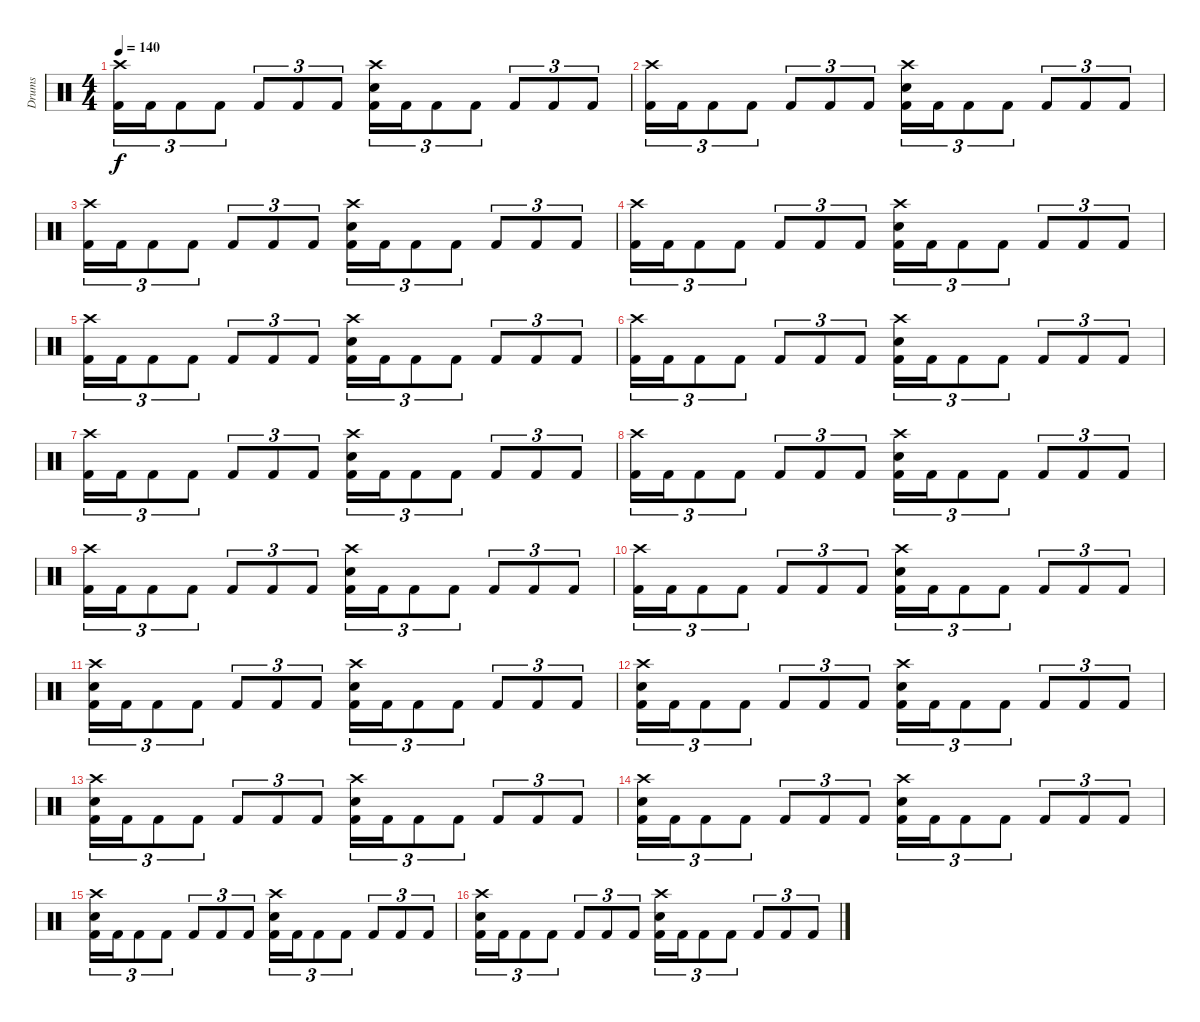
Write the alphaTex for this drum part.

\track ("Drums" "Drums") {instrument percussion}
\staff {score}
\articulation defaults
\ts (4 4)
\tempo 140
\clef neutral
\ks c
("Crash high (hit)" "Kick (hit) 2").16{tu (3 2) dy f} "Kick (hit) 2".16{tu (3 2)} "Kick (hit) 2".8{tu (3 2)} "Kick (hit) 2".8{tu (3 2)} "Kick (hit) 2".8{tu (3 2)} "Kick (hit) 2".8{tu (3 2)} "Kick (hit) 2".8{tu (3 2)} ("Crash high (hit)" "Snare (hit) 2" "Kick (hit) 2").16{tu (3 2)} "Kick (hit) 2".16{tu (3 2)} "Kick (hit) 2".8{tu (3 2)} "Kick (hit) 2".8{tu (3 2)} "Kick (hit) 2".8{tu (3 2)} "Kick (hit) 2".8{tu (3 2)} "Kick (hit) 2".8{tu (3 2)} |
("Crash high (hit)" "Kick (hit) 2").16{tu (3 2)} "Kick (hit) 2".16{tu (3 2)} "Kick (hit) 2".8{tu (3 2)} "Kick (hit) 2".8{tu (3 2)} "Kick (hit) 2".8{tu (3 2)} "Kick (hit) 2".8{tu (3 2)} "Kick (hit) 2".8{tu (3 2)} ("Crash high (hit)" "Snare (hit) 2" "Kick (hit) 2").16{tu (3 2)} "Kick (hit) 2".16{tu (3 2)} "Kick (hit) 2".8{tu (3 2)} "Kick (hit) 2".8{tu (3 2)} "Kick (hit) 2".8{tu (3 2)} "Kick (hit) 2".8{tu (3 2)} "Kick (hit) 2".8{tu (3 2)} |
("Crash high (hit)" "Kick (hit) 2").16{tu (3 2)} "Kick (hit) 2".16{tu (3 2)} "Kick (hit) 2".8{tu (3 2)} "Kick (hit) 2".8{tu (3 2)} "Kick (hit) 2".8{tu (3 2)} "Kick (hit) 2".8{tu (3 2)} "Kick (hit) 2".8{tu (3 2)} ("Crash high (hit)" "Snare (hit) 2" "Kick (hit) 2").16{tu (3 2)} "Kick (hit) 2".16{tu (3 2)} "Kick (hit) 2".8{tu (3 2)} "Kick (hit) 2".8{tu (3 2)} "Kick (hit) 2".8{tu (3 2)} "Kick (hit) 2".8{tu (3 2)} "Kick (hit) 2".8{tu (3 2)} |
("Crash high (hit)" "Kick (hit) 2").16{tu (3 2)} "Kick (hit) 2".16{tu (3 2)} "Kick (hit) 2".8{tu (3 2)} "Kick (hit) 2".8{tu (3 2)} "Kick (hit) 2".8{tu (3 2)} "Kick (hit) 2".8{tu (3 2)} "Kick (hit) 2".8{tu (3 2)} ("Crash high (hit)" "Snare (hit) 2" "Kick (hit) 2").16{tu (3 2)} "Kick (hit) 2".16{tu (3 2)} "Kick (hit) 2".8{tu (3 2)} "Kick (hit) 2".8{tu (3 2)} "Kick (hit) 2".8{tu (3 2)} "Kick (hit) 2".8{tu (3 2)} "Kick (hit) 2".8{tu (3 2)} |
("Crash high (hit)" "Kick (hit) 2").16{tu (3 2)} "Kick (hit) 2".16{tu (3 2)} "Kick (hit) 2".8{tu (3 2)} "Kick (hit) 2".8{tu (3 2)} "Kick (hit) 2".8{tu (3 2)} "Kick (hit) 2".8{tu (3 2)} "Kick (hit) 2".8{tu (3 2)} ("Crash high (hit)" "Snare (hit) 2" "Kick (hit) 2").16{tu (3 2)} "Kick (hit) 2".16{tu (3 2)} "Kick (hit) 2".8{tu (3 2)} "Kick (hit) 2".8{tu (3 2)} "Kick (hit) 2".8{tu (3 2)} "Kick (hit) 2".8{tu (3 2)} "Kick (hit) 2".8{tu (3 2)} |
("Crash high (hit)" "Kick (hit) 2").16{tu (3 2)} "Kick (hit) 2".16{tu (3 2)} "Kick (hit) 2".8{tu (3 2)} "Kick (hit) 2".8{tu (3 2)} "Kick (hit) 2".8{tu (3 2)} "Kick (hit) 2".8{tu (3 2)} "Kick (hit) 2".8{tu (3 2)} ("Crash high (hit)" "Snare (hit) 2" "Kick (hit) 2").16{tu (3 2)} "Kick (hit) 2".16{tu (3 2)} "Kick (hit) 2".8{tu (3 2)} "Kick (hit) 2".8{tu (3 2)} "Kick (hit) 2".8{tu (3 2)} "Kick (hit) 2".8{tu (3 2)} "Kick (hit) 2".8{tu (3 2)} |
("Crash high (hit)" "Kick (hit) 2").16{tu (3 2)} "Kick (hit) 2".16{tu (3 2)} "Kick (hit) 2".8{tu (3 2)} "Kick (hit) 2".8{tu (3 2)} "Kick (hit) 2".8{tu (3 2)} "Kick (hit) 2".8{tu (3 2)} "Kick (hit) 2".8{tu (3 2)} ("Crash high (hit)" "Snare (hit) 2" "Kick (hit) 2").16{tu (3 2)} "Kick (hit) 2".16{tu (3 2)} "Kick (hit) 2".8{tu (3 2)} "Kick (hit) 2".8{tu (3 2)} "Kick (hit) 2".8{tu (3 2)} "Kick (hit) 2".8{tu (3 2)} "Kick (hit) 2".8{tu (3 2)} |
("Crash high (hit)" "Kick (hit) 2").16{tu (3 2)} "Kick (hit) 2".16{tu (3 2)} "Kick (hit) 2".8{tu (3 2)} "Kick (hit) 2".8{tu (3 2)} "Kick (hit) 2".8{tu (3 2)} "Kick (hit) 2".8{tu (3 2)} "Kick (hit) 2".8{tu (3 2)} ("Crash high (hit)" "Snare (hit) 2" "Kick (hit) 2").16{tu (3 2)} "Kick (hit) 2".16{tu (3 2)} "Kick (hit) 2".8{tu (3 2)} "Kick (hit) 2".8{tu (3 2)} "Kick (hit) 2".8{tu (3 2)} "Kick (hit) 2".8{tu (3 2)} "Kick (hit) 2".8{tu (3 2)} |
("Crash high (hit)" "Kick (hit) 2").16{tu (3 2)} "Kick (hit) 2".16{tu (3 2)} "Kick (hit) 2".8{tu (3 2)} "Kick (hit) 2".8{tu (3 2)} "Kick (hit) 2".8{tu (3 2)} "Kick (hit) 2".8{tu (3 2)} "Kick (hit) 2".8{tu (3 2)} ("Crash high (hit)" "Snare (hit) 2" "Kick (hit) 2").16{tu (3 2)} "Kick (hit) 2".16{tu (3 2)} "Kick (hit) 2".8{tu (3 2)} "Kick (hit) 2".8{tu (3 2)} "Kick (hit) 2".8{tu (3 2)} "Kick (hit) 2".8{tu (3 2)} "Kick (hit) 2".8{tu (3 2)} |
("Crash high (hit)" "Kick (hit) 2").16{tu (3 2)} "Kick (hit) 2".16{tu (3 2)} "Kick (hit) 2".8{tu (3 2)} "Kick (hit) 2".8{tu (3 2)} "Kick (hit) 2".8{tu (3 2)} "Kick (hit) 2".8{tu (3 2)} "Kick (hit) 2".8{tu (3 2)} ("Crash high (hit)" "Snare (hit) 2" "Kick (hit) 2").16{tu (3 2)} "Kick (hit) 2".16{tu (3 2)} "Kick (hit) 2".8{tu (3 2)} "Kick (hit) 2".8{tu (3 2)} "Kick (hit) 2".8{tu (3 2)} "Kick (hit) 2".8{tu (3 2)} "Kick (hit) 2".8{tu (3 2)} |
("Crash high (hit)" "Snare (hit) 2" "Kick (hit) 2").16{tu (3 2)} "Kick (hit) 2".16{tu (3 2)} "Kick (hit) 2".8{tu (3 2)} "Kick (hit) 2".8{tu (3 2)} "Kick (hit) 2".8{tu (3 2)} "Kick (hit) 2".8{tu (3 2)} "Kick (hit) 2".8{tu (3 2)} ("Crash high (hit)" "Snare (hit) 2" "Kick (hit) 2").16{tu (3 2)} "Kick (hit) 2".16{tu (3 2)} "Kick (hit) 2".8{tu (3 2)} "Kick (hit) 2".8{tu (3 2)} "Kick (hit) 2".8{tu (3 2)} "Kick (hit) 2".8{tu (3 2)} "Kick (hit) 2".8{tu (3 2)} |
("Crash high (hit)" "Snare (hit) 2" "Kick (hit) 2").16{tu (3 2)} "Kick (hit) 2".16{tu (3 2)} "Kick (hit) 2".8{tu (3 2)} "Kick (hit) 2".8{tu (3 2)} "Kick (hit) 2".8{tu (3 2)} "Kick (hit) 2".8{tu (3 2)} "Kick (hit) 2".8{tu (3 2)} ("Crash high (hit)" "Snare (hit) 2" "Kick (hit) 2").16{tu (3 2)} "Kick (hit) 2".16{tu (3 2)} "Kick (hit) 2".8{tu (3 2)} "Kick (hit) 2".8{tu (3 2)} "Kick (hit) 2".8{tu (3 2)} "Kick (hit) 2".8{tu (3 2)} "Kick (hit) 2".8{tu (3 2)} |
("Crash high (hit)" "Snare (hit) 2" "Kick (hit) 2").16{tu (3 2)} "Kick (hit) 2".16{tu (3 2)} "Kick (hit) 2".8{tu (3 2)} "Kick (hit) 2".8{tu (3 2)} "Kick (hit) 2".8{tu (3 2)} "Kick (hit) 2".8{tu (3 2)} "Kick (hit) 2".8{tu (3 2)} ("Crash high (hit)" "Snare (hit) 2" "Kick (hit) 2").16{tu (3 2)} "Kick (hit) 2".16{tu (3 2)} "Kick (hit) 2".8{tu (3 2)} "Kick (hit) 2".8{tu (3 2)} "Kick (hit) 2".8{tu (3 2)} "Kick (hit) 2".8{tu (3 2)} "Kick (hit) 2".8{tu (3 2)} |
("Crash high (hit)" "Snare (hit) 2" "Kick (hit) 2").16{tu (3 2)} "Kick (hit) 2".16{tu (3 2)} "Kick (hit) 2".8{tu (3 2)} "Kick (hit) 2".8{tu (3 2)} "Kick (hit) 2".8{tu (3 2)} "Kick (hit) 2".8{tu (3 2)} "Kick (hit) 2".8{tu (3 2)} ("Crash high (hit)" "Snare (hit) 2" "Kick (hit) 2").16{tu (3 2)} "Kick (hit) 2".16{tu (3 2)} "Kick (hit) 2".8{tu (3 2)} "Kick (hit) 2".8{tu (3 2)} "Kick (hit) 2".8{tu (3 2)} "Kick (hit) 2".8{tu (3 2)} "Kick (hit) 2".8{tu (3 2)} |
("Crash high (hit)" "Snare (hit) 2" "Kick (hit) 2").16{tu (3 2)} "Kick (hit) 2".16{tu (3 2)} "Kick (hit) 2".8{tu (3 2)} "Kick (hit) 2".8{tu (3 2)} "Kick (hit) 2".8{tu (3 2)} "Kick (hit) 2".8{tu (3 2)} "Kick (hit) 2".8{tu (3 2)} ("Crash high (hit)" "Snare (hit) 2" "Kick (hit) 2").16{tu (3 2)} "Kick (hit) 2".16{tu (3 2)} "Kick (hit) 2".8{tu (3 2)} "Kick (hit) 2".8{tu (3 2)} "Kick (hit) 2".8{tu (3 2)} "Kick (hit) 2".8{tu (3 2)} "Kick (hit) 2".8{tu (3 2)} |
("Crash high (hit)" "Snare (hit) 2" "Kick (hit) 2").16{tu (3 2)} "Kick (hit) 2".16{tu (3 2)} "Kick (hit) 2".8{tu (3 2)} "Kick (hit) 2".8{tu (3 2)} "Kick (hit) 2".8{tu (3 2)} "Kick (hit) 2".8{tu (3 2)} "Kick (hit) 2".8{tu (3 2)} ("Crash high (hit)" "Snare (hit) 2" "Kick (hit) 2").16{tu (3 2)} "Kick (hit) 2".16{tu (3 2)} "Kick (hit) 2".8{tu (3 2)} "Kick (hit) 2".8{tu (3 2)} "Kick (hit) 2".8{tu (3 2)} "Kick (hit) 2".8{tu (3 2)} "Kick (hit) 2".8{tu (3 2)}
